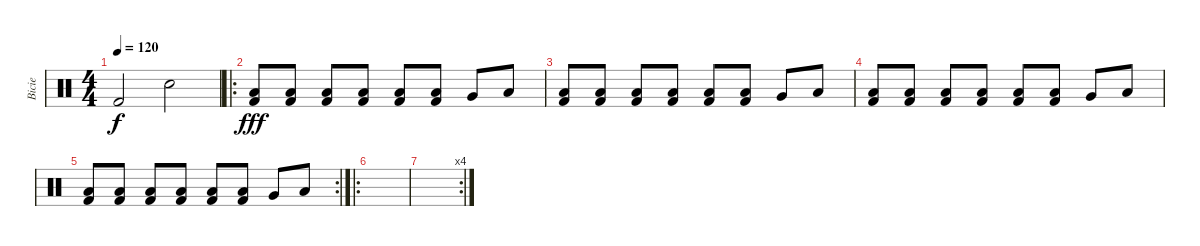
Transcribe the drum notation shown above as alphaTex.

\track ("Bicie" "Bicie") {instrument percussion}
\staff {score}
\articulation defaults
\ts (4 4)
\tempo 120
\clef neutral
\ks c "Kick (hit) 2".2{dy f} "Electric Snare (hit)".2
|
\ro
("Kick (hit) 2" "Low Floor Tom (hit)").8{dy fff} ("Kick (hit) 2" "Low Floor Tom (hit)").8 ("Kick (hit) 2" "Low Floor Tom (hit)").8 ("Kick (hit) 2" "Low Floor Tom (hit)").8 ("Kick (hit) 2" "Low Floor Tom (hit)").8 ("Kick (hit) 2" "Low Floor Tom (hit)").8 "Very Low Tom (hit)".8 "Low Tom (hit)".8 |
("Kick (hit) 2" "Low Floor Tom (hit)").8 ("Kick (hit) 2" "Low Floor Tom (hit)").8 ("Kick (hit) 2" "Low Floor Tom (hit)").8 ("Kick (hit) 2" "Low Floor Tom (hit)").8 ("Kick (hit) 2" "Low Floor Tom (hit)").8 ("Kick (hit) 2" "Low Floor Tom (hit)").8 "Very Low Tom (hit)".8 "Low Tom (hit)".8 |
("Kick (hit) 2" "Low Floor Tom (hit)").8 ("Kick (hit) 2" "Low Floor Tom (hit)").8 ("Kick (hit) 2" "Low Floor Tom (hit)").8 ("Kick (hit) 2" "Low Floor Tom (hit)").8 ("Kick (hit) 2" "Low Floor Tom (hit)").8 ("Kick (hit) 2" "Low Floor Tom (hit)").8 "Very Low Tom (hit)".8 "Low Tom (hit)".8 |
\rc 2
("Kick (hit) 2" "Low Floor Tom (hit)").8 ("Kick (hit) 2" "Low Floor Tom (hit)").8 ("Kick (hit) 2" "Low Floor Tom (hit)").8 ("Kick (hit) 2" "Low Floor Tom (hit)").8 ("Kick (hit) 2" "Low Floor Tom (hit)").8 ("Kick (hit) 2" "Low Floor Tom (hit)").8 "Very Low Tom (hit)".8 "Low Tom (hit)".8 |
\ro
|
\rc 4
